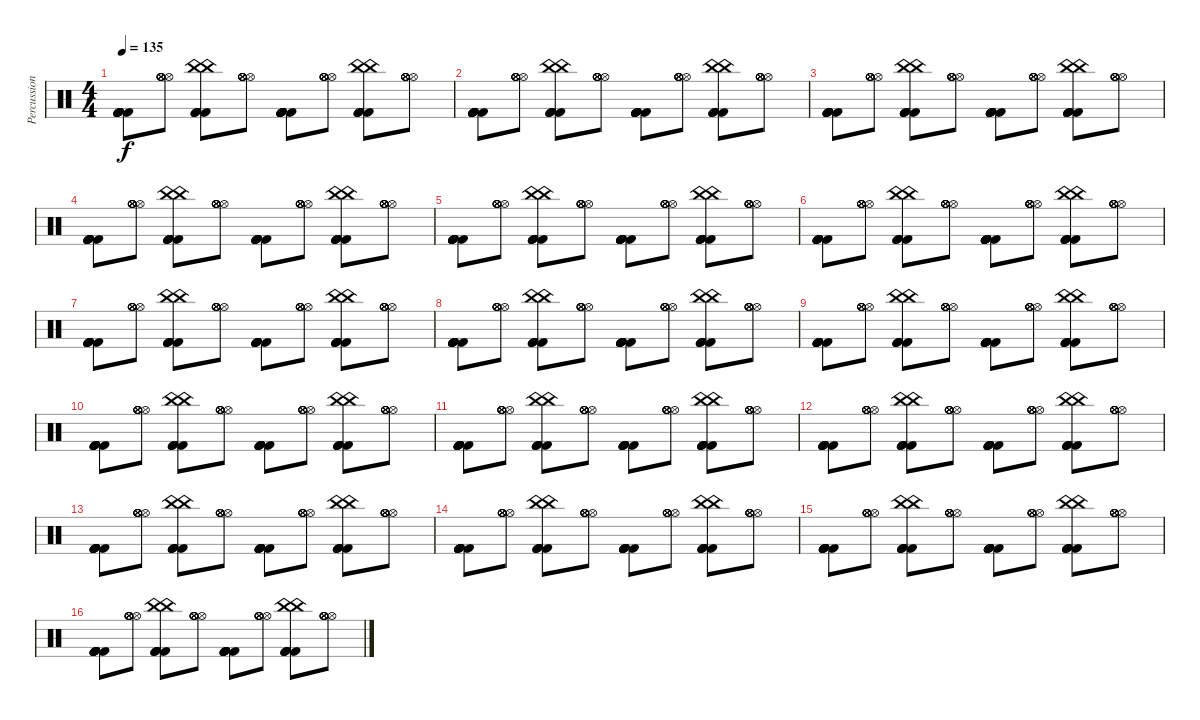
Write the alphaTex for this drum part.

\track ("Percussion" "Percussion") {instrument percussion}
\staff {score}
\articulation defaults
\ts (4 4)
\tempo 135
\clef neutral
\ks c
("Kick (hit) 2" "Kick (hit) 2" "Kick (hit) 2" "Kick (hit) 2" "Kick (hit) 2" "Kick (hit) 2").8{dy f} ("Hi-Hat (open)" "Hi-Hat (open)" "Hi-Hat (open)" "Hi-Hat (open)" "Hi-Hat (open)" "Hi-Hat (open)").8 ("China (hit)" "China (hit)" "Kick (hit) 2" "Kick (hit) 2" "Kick (hit) 2" "Kick (hit) 2").8 ("Hi-Hat (open)" "Hi-Hat (open)" "Hi-Hat (open)" "Hi-Hat (open)" "Hi-Hat (open)" "Hi-Hat (open)").8 ("Kick (hit) 2" "Kick (hit) 2" "Kick (hit) 2" "Kick (hit) 2" "Kick (hit) 2" "Kick (hit) 2").8 ("Hi-Hat (open)" "Hi-Hat (open)" "Hi-Hat (open)" "Hi-Hat (open)" "Hi-Hat (open)" "Hi-Hat (open)").8 ("China (hit)" "China (hit)" "Kick (hit) 2" "Kick (hit) 2" "Kick (hit) 2" "Kick (hit) 2").8 ("Hi-Hat (open)" "Hi-Hat (open)" "Hi-Hat (open)" "Hi-Hat (open)" "Hi-Hat (open)" "Hi-Hat (open)").8 |
("Kick (hit) 2" "Kick (hit) 2" "Kick (hit) 2" "Kick (hit) 2" "Kick (hit) 2" "Kick (hit) 2").8 ("Hi-Hat (open)" "Hi-Hat (open)" "Hi-Hat (open)" "Hi-Hat (open)" "Hi-Hat (open)" "Hi-Hat (open)").8 ("China (hit)" "China (hit)" "Kick (hit) 2" "Kick (hit) 2" "Kick (hit) 2" "Kick (hit) 2").8 ("Hi-Hat (open)" "Hi-Hat (open)" "Hi-Hat (open)" "Hi-Hat (open)" "Hi-Hat (open)" "Hi-Hat (open)").8 ("Kick (hit) 2" "Kick (hit) 2" "Kick (hit) 2" "Kick (hit) 2" "Kick (hit) 2" "Kick (hit) 2").8 ("Hi-Hat (open)" "Hi-Hat (open)" "Hi-Hat (open)" "Hi-Hat (open)" "Hi-Hat (open)" "Hi-Hat (open)").8 ("China (hit)" "China (hit)" "Kick (hit) 2" "Kick (hit) 2" "Kick (hit) 2" "Kick (hit) 2").8 ("Hi-Hat (open)" "Hi-Hat (open)" "Hi-Hat (open)" "Hi-Hat (open)" "Hi-Hat (open)" "Hi-Hat (open)").8 |
("Kick (hit) 2" "Kick (hit) 2" "Kick (hit) 2" "Kick (hit) 2" "Kick (hit) 2" "Kick (hit) 2").8 ("Hi-Hat (open)" "Hi-Hat (open)" "Hi-Hat (open)" "Hi-Hat (open)" "Hi-Hat (open)" "Hi-Hat (open)").8 ("China (hit)" "China (hit)" "Kick (hit) 2" "Kick (hit) 2" "Kick (hit) 2" "Kick (hit) 2").8 ("Hi-Hat (open)" "Hi-Hat (open)" "Hi-Hat (open)" "Hi-Hat (open)" "Hi-Hat (open)" "Hi-Hat (open)").8 ("Kick (hit) 2" "Kick (hit) 2" "Kick (hit) 2" "Kick (hit) 2" "Kick (hit) 2" "Kick (hit) 2").8 ("Hi-Hat (open)" "Hi-Hat (open)" "Hi-Hat (open)" "Hi-Hat (open)" "Hi-Hat (open)" "Hi-Hat (open)").8 ("China (hit)" "China (hit)" "Kick (hit) 2" "Kick (hit) 2" "Kick (hit) 2" "Kick (hit) 2").8 ("Hi-Hat (open)" "Hi-Hat (open)" "Hi-Hat (open)" "Hi-Hat (open)" "Hi-Hat (open)" "Hi-Hat (open)").8 |
("Kick (hit) 2" "Kick (hit) 2" "Kick (hit) 2" "Kick (hit) 2" "Kick (hit) 2" "Kick (hit) 2").8 ("Hi-Hat (open)" "Hi-Hat (open)" "Hi-Hat (open)" "Hi-Hat (open)" "Hi-Hat (open)" "Hi-Hat (open)").8 ("China (hit)" "China (hit)" "Kick (hit) 2" "Kick (hit) 2" "Kick (hit) 2" "Kick (hit) 2").8 ("Hi-Hat (open)" "Hi-Hat (open)" "Hi-Hat (open)" "Hi-Hat (open)" "Hi-Hat (open)" "Hi-Hat (open)").8 ("Kick (hit) 2" "Kick (hit) 2" "Kick (hit) 2" "Kick (hit) 2" "Kick (hit) 2" "Kick (hit) 2").8 ("Hi-Hat (open)" "Hi-Hat (open)" "Hi-Hat (open)" "Hi-Hat (open)" "Hi-Hat (open)" "Hi-Hat (open)").8 ("China (hit)" "China (hit)" "Kick (hit) 2" "Kick (hit) 2" "Kick (hit) 2" "Kick (hit) 2").8 ("Hi-Hat (open)" "Hi-Hat (open)" "Hi-Hat (open)" "Hi-Hat (open)" "Hi-Hat (open)" "Hi-Hat (open)").8 |
("Kick (hit) 2" "Kick (hit) 2" "Kick (hit) 2" "Kick (hit) 2" "Kick (hit) 2" "Kick (hit) 2").8 ("Hi-Hat (open)" "Hi-Hat (open)" "Hi-Hat (open)" "Hi-Hat (open)" "Hi-Hat (open)" "Hi-Hat (open)").8 ("China (hit)" "China (hit)" "Kick (hit) 2" "Kick (hit) 2" "Kick (hit) 2" "Kick (hit) 2").8 ("Hi-Hat (open)" "Hi-Hat (open)" "Hi-Hat (open)" "Hi-Hat (open)" "Hi-Hat (open)" "Hi-Hat (open)").8 ("Kick (hit) 2" "Kick (hit) 2" "Kick (hit) 2" "Kick (hit) 2" "Kick (hit) 2" "Kick (hit) 2").8 ("Hi-Hat (open)" "Hi-Hat (open)" "Hi-Hat (open)" "Hi-Hat (open)" "Hi-Hat (open)" "Hi-Hat (open)").8 ("China (hit)" "China (hit)" "Kick (hit) 2" "Kick (hit) 2" "Kick (hit) 2" "Kick (hit) 2").8 ("Hi-Hat (open)" "Hi-Hat (open)" "Hi-Hat (open)" "Hi-Hat (open)" "Hi-Hat (open)" "Hi-Hat (open)").8 |
("Kick (hit) 2" "Kick (hit) 2" "Kick (hit) 2" "Kick (hit) 2" "Kick (hit) 2" "Kick (hit) 2").8 ("Hi-Hat (open)" "Hi-Hat (open)" "Hi-Hat (open)" "Hi-Hat (open)" "Hi-Hat (open)" "Hi-Hat (open)").8 ("China (hit)" "China (hit)" "Kick (hit) 2" "Kick (hit) 2" "Kick (hit) 2" "Kick (hit) 2").8 ("Hi-Hat (open)" "Hi-Hat (open)" "Hi-Hat (open)" "Hi-Hat (open)" "Hi-Hat (open)" "Hi-Hat (open)").8 ("Kick (hit) 2" "Kick (hit) 2" "Kick (hit) 2" "Kick (hit) 2" "Kick (hit) 2" "Kick (hit) 2").8 ("Hi-Hat (open)" "Hi-Hat (open)" "Hi-Hat (open)" "Hi-Hat (open)" "Hi-Hat (open)" "Hi-Hat (open)").8 ("China (hit)" "China (hit)" "Kick (hit) 2" "Kick (hit) 2" "Kick (hit) 2" "Kick (hit) 2").8 ("Hi-Hat (open)" "Hi-Hat (open)" "Hi-Hat (open)" "Hi-Hat (open)" "Hi-Hat (open)" "Hi-Hat (open)").8 |
("Kick (hit) 2" "Kick (hit) 2" "Kick (hit) 2" "Kick (hit) 2" "Kick (hit) 2" "Kick (hit) 2").8 ("Hi-Hat (open)" "Hi-Hat (open)" "Hi-Hat (open)" "Hi-Hat (open)" "Hi-Hat (open)" "Hi-Hat (open)").8 ("China (hit)" "China (hit)" "Kick (hit) 2" "Kick (hit) 2" "Kick (hit) 2" "Kick (hit) 2").8 ("Hi-Hat (open)" "Hi-Hat (open)" "Hi-Hat (open)" "Hi-Hat (open)" "Hi-Hat (open)" "Hi-Hat (open)").8 ("Kick (hit) 2" "Kick (hit) 2" "Kick (hit) 2" "Kick (hit) 2" "Kick (hit) 2" "Kick (hit) 2").8 ("Hi-Hat (open)" "Hi-Hat (open)" "Hi-Hat (open)" "Hi-Hat (open)" "Hi-Hat (open)" "Hi-Hat (open)").8 ("China (hit)" "China (hit)" "Kick (hit) 2" "Kick (hit) 2" "Kick (hit) 2" "Kick (hit) 2").8 ("Hi-Hat (open)" "Hi-Hat (open)" "Hi-Hat (open)" "Hi-Hat (open)" "Hi-Hat (open)" "Hi-Hat (open)").8 |
("Kick (hit) 2" "Kick (hit) 2" "Kick (hit) 2" "Kick (hit) 2" "Kick (hit) 2" "Kick (hit) 2").8 ("Hi-Hat (open)" "Hi-Hat (open)" "Hi-Hat (open)" "Hi-Hat (open)" "Hi-Hat (open)" "Hi-Hat (open)").8 ("China (hit)" "China (hit)" "Kick (hit) 2" "Kick (hit) 2" "Kick (hit) 2" "Kick (hit) 2").8 ("Hi-Hat (open)" "Hi-Hat (open)" "Hi-Hat (open)" "Hi-Hat (open)" "Hi-Hat (open)" "Hi-Hat (open)").8 ("Kick (hit) 2" "Kick (hit) 2" "Kick (hit) 2" "Kick (hit) 2" "Kick (hit) 2" "Kick (hit) 2").8 ("Hi-Hat (open)" "Hi-Hat (open)" "Hi-Hat (open)" "Hi-Hat (open)" "Hi-Hat (open)" "Hi-Hat (open)").8 ("China (hit)" "China (hit)" "Kick (hit) 2" "Kick (hit) 2" "Kick (hit) 2" "Kick (hit) 2").8 ("Hi-Hat (open)" "Hi-Hat (open)" "Hi-Hat (open)" "Hi-Hat (open)" "Hi-Hat (open)" "Hi-Hat (open)").8 |
("Kick (hit) 2" "Kick (hit) 2" "Kick (hit) 2" "Kick (hit) 2" "Kick (hit) 2" "Kick (hit) 2").8 ("Hi-Hat (open)" "Hi-Hat (open)" "Hi-Hat (open)" "Hi-Hat (open)" "Hi-Hat (open)" "Hi-Hat (open)").8 ("China (hit)" "China (hit)" "Kick (hit) 2" "Kick (hit) 2" "Kick (hit) 2" "Kick (hit) 2").8 ("Hi-Hat (open)" "Hi-Hat (open)" "Hi-Hat (open)" "Hi-Hat (open)" "Hi-Hat (open)" "Hi-Hat (open)").8 ("Kick (hit) 2" "Kick (hit) 2" "Kick (hit) 2" "Kick (hit) 2" "Kick (hit) 2" "Kick (hit) 2").8 ("Hi-Hat (open)" "Hi-Hat (open)" "Hi-Hat (open)" "Hi-Hat (open)" "Hi-Hat (open)" "Hi-Hat (open)").8 ("China (hit)" "China (hit)" "Kick (hit) 2" "Kick (hit) 2" "Kick (hit) 2" "Kick (hit) 2").8 ("Hi-Hat (open)" "Hi-Hat (open)" "Hi-Hat (open)" "Hi-Hat (open)" "Hi-Hat (open)" "Hi-Hat (open)").8 |
("Kick (hit) 2" "Kick (hit) 2" "Kick (hit) 2" "Kick (hit) 2" "Kick (hit) 2" "Kick (hit) 2").8 ("Hi-Hat (open)" "Hi-Hat (open)" "Hi-Hat (open)" "Hi-Hat (open)" "Hi-Hat (open)" "Hi-Hat (open)").8 ("China (hit)" "China (hit)" "Kick (hit) 2" "Kick (hit) 2" "Kick (hit) 2" "Kick (hit) 2").8 ("Hi-Hat (open)" "Hi-Hat (open)" "Hi-Hat (open)" "Hi-Hat (open)" "Hi-Hat (open)" "Hi-Hat (open)").8 ("Kick (hit) 2" "Kick (hit) 2" "Kick (hit) 2" "Kick (hit) 2" "Kick (hit) 2" "Kick (hit) 2").8 ("Hi-Hat (open)" "Hi-Hat (open)" "Hi-Hat (open)" "Hi-Hat (open)" "Hi-Hat (open)" "Hi-Hat (open)").8 ("China (hit)" "China (hit)" "Kick (hit) 2" "Kick (hit) 2" "Kick (hit) 2" "Kick (hit) 2").8 ("Hi-Hat (open)" "Hi-Hat (open)" "Hi-Hat (open)" "Hi-Hat (open)" "Hi-Hat (open)" "Hi-Hat (open)").8 |
("Kick (hit) 2" "Kick (hit) 2" "Kick (hit) 2" "Kick (hit) 2" "Kick (hit) 2" "Kick (hit) 2").8 ("Hi-Hat (open)" "Hi-Hat (open)" "Hi-Hat (open)" "Hi-Hat (open)" "Hi-Hat (open)" "Hi-Hat (open)").8 ("China (hit)" "China (hit)" "Kick (hit) 2" "Kick (hit) 2" "Kick (hit) 2" "Kick (hit) 2").8 ("Hi-Hat (open)" "Hi-Hat (open)" "Hi-Hat (open)" "Hi-Hat (open)" "Hi-Hat (open)" "Hi-Hat (open)").8 ("Kick (hit) 2" "Kick (hit) 2" "Kick (hit) 2" "Kick (hit) 2" "Kick (hit) 2" "Kick (hit) 2").8 ("Hi-Hat (open)" "Hi-Hat (open)" "Hi-Hat (open)" "Hi-Hat (open)" "Hi-Hat (open)" "Hi-Hat (open)").8 ("China (hit)" "China (hit)" "Kick (hit) 2" "Kick (hit) 2" "Kick (hit) 2" "Kick (hit) 2").8 ("Hi-Hat (open)" "Hi-Hat (open)" "Hi-Hat (open)" "Hi-Hat (open)" "Hi-Hat (open)" "Hi-Hat (open)").8 |
("Kick (hit) 2" "Kick (hit) 2" "Kick (hit) 2" "Kick (hit) 2" "Kick (hit) 2" "Kick (hit) 2").8 ("Hi-Hat (open)" "Hi-Hat (open)" "Hi-Hat (open)" "Hi-Hat (open)" "Hi-Hat (open)" "Hi-Hat (open)").8 ("China (hit)" "China (hit)" "Kick (hit) 2" "Kick (hit) 2" "Kick (hit) 2" "Kick (hit) 2").8 ("Hi-Hat (open)" "Hi-Hat (open)" "Hi-Hat (open)" "Hi-Hat (open)" "Hi-Hat (open)" "Hi-Hat (open)").8 ("Kick (hit) 2" "Kick (hit) 2" "Kick (hit) 2" "Kick (hit) 2" "Kick (hit) 2" "Kick (hit) 2").8 ("Hi-Hat (open)" "Hi-Hat (open)" "Hi-Hat (open)" "Hi-Hat (open)" "Hi-Hat (open)" "Hi-Hat (open)").8 ("China (hit)" "China (hit)" "Kick (hit) 2" "Kick (hit) 2" "Kick (hit) 2" "Kick (hit) 2").8 ("Hi-Hat (open)" "Hi-Hat (open)" "Hi-Hat (open)" "Hi-Hat (open)" "Hi-Hat (open)" "Hi-Hat (open)").8 |
("Kick (hit) 2" "Kick (hit) 2" "Kick (hit) 2" "Kick (hit) 2" "Kick (hit) 2" "Kick (hit) 2").8 ("Hi-Hat (open)" "Hi-Hat (open)" "Hi-Hat (open)" "Hi-Hat (open)" "Hi-Hat (open)" "Hi-Hat (open)").8 ("China (hit)" "China (hit)" "Kick (hit) 2" "Kick (hit) 2" "Kick (hit) 2" "Kick (hit) 2").8 ("Hi-Hat (open)" "Hi-Hat (open)" "Hi-Hat (open)" "Hi-Hat (open)" "Hi-Hat (open)" "Hi-Hat (open)").8 ("Kick (hit) 2" "Kick (hit) 2" "Kick (hit) 2" "Kick (hit) 2" "Kick (hit) 2" "Kick (hit) 2").8 ("Hi-Hat (open)" "Hi-Hat (open)" "Hi-Hat (open)" "Hi-Hat (open)" "Hi-Hat (open)" "Hi-Hat (open)").8 ("China (hit)" "China (hit)" "Kick (hit) 2" "Kick (hit) 2" "Kick (hit) 2" "Kick (hit) 2").8 ("Hi-Hat (open)" "Hi-Hat (open)" "Hi-Hat (open)" "Hi-Hat (open)" "Hi-Hat (open)" "Hi-Hat (open)").8 |
("Kick (hit) 2" "Kick (hit) 2" "Kick (hit) 2" "Kick (hit) 2" "Kick (hit) 2" "Kick (hit) 2").8 ("Hi-Hat (open)" "Hi-Hat (open)" "Hi-Hat (open)" "Hi-Hat (open)" "Hi-Hat (open)" "Hi-Hat (open)").8 ("China (hit)" "China (hit)" "Kick (hit) 2" "Kick (hit) 2" "Kick (hit) 2" "Kick (hit) 2").8 ("Hi-Hat (open)" "Hi-Hat (open)" "Hi-Hat (open)" "Hi-Hat (open)" "Hi-Hat (open)" "Hi-Hat (open)").8 ("Kick (hit) 2" "Kick (hit) 2" "Kick (hit) 2" "Kick (hit) 2" "Kick (hit) 2" "Kick (hit) 2").8 ("Hi-Hat (open)" "Hi-Hat (open)" "Hi-Hat (open)" "Hi-Hat (open)" "Hi-Hat (open)" "Hi-Hat (open)").8 ("China (hit)" "China (hit)" "Kick (hit) 2" "Kick (hit) 2" "Kick (hit) 2" "Kick (hit) 2").8 ("Hi-Hat (open)" "Hi-Hat (open)" "Hi-Hat (open)" "Hi-Hat (open)" "Hi-Hat (open)" "Hi-Hat (open)").8 |
("Kick (hit) 2" "Kick (hit) 2" "Kick (hit) 2" "Kick (hit) 2" "Kick (hit) 2" "Kick (hit) 2").8 ("Hi-Hat (open)" "Hi-Hat (open)" "Hi-Hat (open)" "Hi-Hat (open)" "Hi-Hat (open)" "Hi-Hat (open)").8 ("China (hit)" "China (hit)" "Kick (hit) 2" "Kick (hit) 2" "Kick (hit) 2" "Kick (hit) 2").8 ("Hi-Hat (open)" "Hi-Hat (open)" "Hi-Hat (open)" "Hi-Hat (open)" "Hi-Hat (open)" "Hi-Hat (open)").8 ("Kick (hit) 2" "Kick (hit) 2" "Kick (hit) 2" "Kick (hit) 2" "Kick (hit) 2" "Kick (hit) 2").8 ("Hi-Hat (open)" "Hi-Hat (open)" "Hi-Hat (open)" "Hi-Hat (open)" "Hi-Hat (open)" "Hi-Hat (open)").8 ("China (hit)" "China (hit)" "Kick (hit) 2" "Kick (hit) 2" "Kick (hit) 2" "Kick (hit) 2").8 ("Hi-Hat (open)" "Hi-Hat (open)" "Hi-Hat (open)" "Hi-Hat (open)" "Hi-Hat (open)" "Hi-Hat (open)").8 |
("Kick (hit) 2" "Kick (hit) 2" "Kick (hit) 2" "Kick (hit) 2" "Kick (hit) 2" "Kick (hit) 2").8 ("Hi-Hat (open)" "Hi-Hat (open)" "Hi-Hat (open)" "Hi-Hat (open)" "Hi-Hat (open)" "Hi-Hat (open)").8 ("China (hit)" "China (hit)" "Kick (hit) 2" "Kick (hit) 2" "Kick (hit) 2" "Kick (hit) 2").8 ("Hi-Hat (open)" "Hi-Hat (open)" "Hi-Hat (open)" "Hi-Hat (open)" "Hi-Hat (open)" "Hi-Hat (open)").8 ("Kick (hit) 2" "Kick (hit) 2" "Kick (hit) 2" "Kick (hit) 2" "Kick (hit) 2" "Kick (hit) 2").8 ("Hi-Hat (open)" "Hi-Hat (open)" "Hi-Hat (open)" "Hi-Hat (open)" "Hi-Hat (open)" "Hi-Hat (open)").8 ("China (hit)" "China (hit)" "Kick (hit) 2" "Kick (hit) 2" "Kick (hit) 2" "Kick (hit) 2").8 ("Hi-Hat (open)" "Hi-Hat (open)" "Hi-Hat (open)" "Hi-Hat (open)" "Hi-Hat (open)" "Hi-Hat (open)").8
